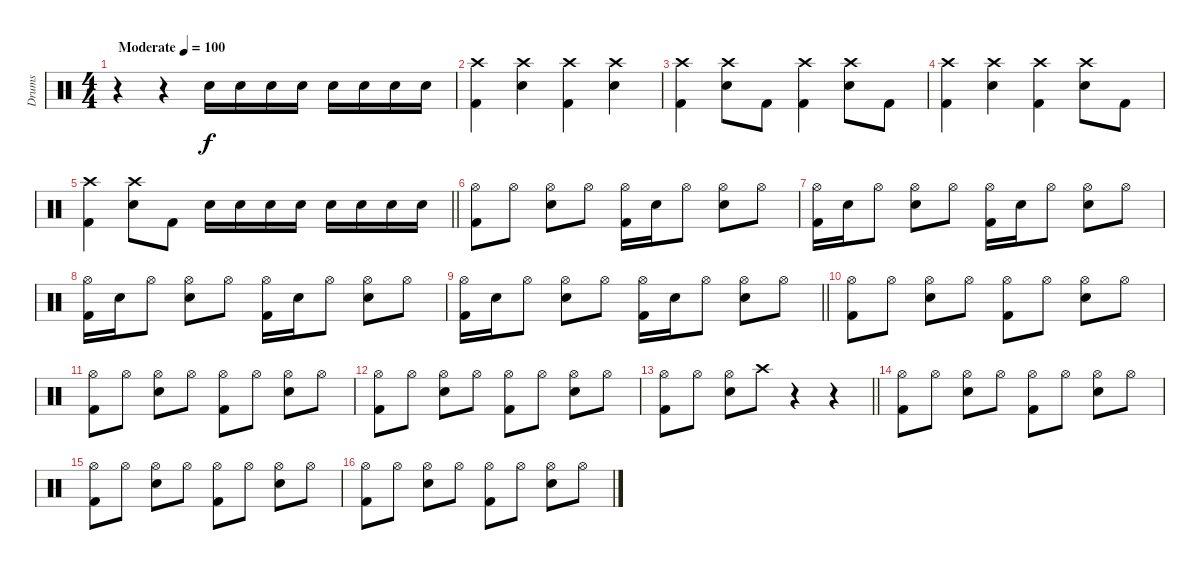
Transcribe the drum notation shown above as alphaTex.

\track ("Drums" "Drums") {instrument percussion}
\staff {score}
\articulation defaults
\ts (4 4)
\tempo (100 "Moderate")
\clef neutral
\ks c
r.4{dy f} r.4 "Electric Snare (hit)".16 "Electric Snare (hit)".16 "Electric Snare (hit)".16 "Electric Snare (hit)".16 "Electric Snare (hit)".16 "Electric Snare (hit)".16 "Electric Snare (hit)".16 "Electric Snare (hit)".16 |
("Crash high (hit)" "Kick (hit) 2").4 ("Crash high (hit)" "Electric Snare (hit)").4 ("Crash high (hit)" "Kick (hit) 2").4 ("Crash high (hit)" "Electric Snare (hit)").4 |
("Crash high (hit)" "Kick (hit) 2").4 ("Crash high (hit)" "Electric Snare (hit)").8 "Kick (hit) 2".8 ("Crash high (hit)" "Kick (hit) 2").4 ("Crash high (hit)" "Electric Snare (hit)").8 "Kick (hit) 2".8 |
("Crash high (hit)" "Kick (hit) 2").4 ("Crash high (hit)" "Electric Snare (hit)").4 ("Crash high (hit)" "Kick (hit) 2").4 ("Crash high (hit)" "Electric Snare (hit)").8 "Kick (hit) 2".8 |
\barLineRight lightlight
("Crash high (hit)" "Kick (hit) 2").4 ("Crash high (hit)" "Electric Snare (hit)").8 "Kick (hit) 2".8 "Electric Snare (hit)".16 "Electric Snare (hit)".16 "Electric Snare (hit)".16 "Electric Snare (hit)".16 "Electric Snare (hit)".16 "Electric Snare (hit)".16 "Electric Snare (hit)".16 "Electric Snare (hit)".16 |
("Hi-Hat (open)" "Kick (hit) 2").8 "Hi-Hat (open)".8 ("Hi-Hat (open)" "Electric Snare (hit)").8 "Hi-Hat (open)".8 ("Hi-Hat (open)" "Kick (hit) 2").16 "Electric Snare (hit)".16 "Hi-Hat (open)".8 ("Hi-Hat (open)" "Electric Snare (hit)").8 "Hi-Hat (open)".8 |
("Hi-Hat (open)" "Kick (hit) 2").16 "Electric Snare (hit)".16 "Hi-Hat (open)".8 ("Hi-Hat (open)" "Electric Snare (hit)").8 "Hi-Hat (open)".8 ("Hi-Hat (open)" "Kick (hit) 2").16 "Electric Snare (hit)".16 "Hi-Hat (open)".8 ("Hi-Hat (open)" "Electric Snare (hit)").8 "Hi-Hat (open)".8 |
("Hi-Hat (open)" "Kick (hit) 2").16 "Electric Snare (hit)".16 "Hi-Hat (open)".8 ("Hi-Hat (open)" "Electric Snare (hit)").8 "Hi-Hat (open)".8 ("Hi-Hat (open)" "Kick (hit) 2").16 "Electric Snare (hit)".16 "Hi-Hat (open)".8 ("Hi-Hat (open)" "Electric Snare (hit)").8 "Hi-Hat (open)".8 |
\barLineRight lightlight
("Hi-Hat (open)" "Kick (hit) 2").16 "Electric Snare (hit)".16 "Hi-Hat (open)".8 ("Hi-Hat (open)" "Electric Snare (hit)").8 "Hi-Hat (open)".8 ("Hi-Hat (open)" "Kick (hit) 2").16 "Electric Snare (hit)".16 "Hi-Hat (open)".8 ("Hi-Hat (open)" "Electric Snare (hit)").8 "Hi-Hat (open)".8 |
("Hi-Hat (open)" "Kick (hit) 2").8 "Hi-Hat (open)".8 ("Hi-Hat (open)" "Electric Snare (hit)").8 "Hi-Hat (open)".8 ("Hi-Hat (open)" "Kick (hit) 2").8 "Hi-Hat (open)".8 ("Hi-Hat (open)" "Electric Snare (hit)").8 "Hi-Hat (open)".8 |
("Hi-Hat (open)" "Kick (hit) 2").8 "Hi-Hat (open)".8 ("Hi-Hat (open)" "Electric Snare (hit)").8 "Hi-Hat (open)".8 ("Hi-Hat (open)" "Kick (hit) 2").8 "Hi-Hat (open)".8 ("Hi-Hat (open)" "Electric Snare (hit)").8 "Hi-Hat (open)".8 |
("Hi-Hat (open)" "Kick (hit) 2").8 "Hi-Hat (open)".8 ("Hi-Hat (open)" "Electric Snare (hit)").8 "Hi-Hat (open)".8 ("Hi-Hat (open)" "Kick (hit) 2").8 "Hi-Hat (open)".8 ("Hi-Hat (open)" "Electric Snare (hit)").8 "Hi-Hat (open)".8 |
\barLineRight lightlight
("Hi-Hat (open)" "Kick (hit) 2").8 "Hi-Hat (open)".8 ("Hi-Hat (open)" "Electric Snare (hit)").8 "Crash high (hit)".8 r.4 r.4 |
("Hi-Hat (open)" "Kick (hit) 2").8 "Hi-Hat (open)".8 ("Hi-Hat (open)" "Electric Snare (hit)").8 "Hi-Hat (open)".8 ("Hi-Hat (open)" "Kick (hit) 2").8 "Hi-Hat (open)".8 ("Hi-Hat (open)" "Electric Snare (hit)").8 "Hi-Hat (open)".8 |
("Hi-Hat (open)" "Kick (hit) 2").8 "Hi-Hat (open)".8 ("Hi-Hat (open)" "Electric Snare (hit)").8 "Hi-Hat (open)".8 ("Hi-Hat (open)" "Kick (hit) 2").8 "Hi-Hat (open)".8 ("Hi-Hat (open)" "Electric Snare (hit)").8 "Hi-Hat (open)".8 |
("Hi-Hat (open)" "Kick (hit) 2").8 "Hi-Hat (open)".8 ("Hi-Hat (open)" "Electric Snare (hit)").8 "Hi-Hat (open)".8 ("Hi-Hat (open)" "Kick (hit) 2").8 "Hi-Hat (open)".8 ("Hi-Hat (open)" "Electric Snare (hit)").8 "Hi-Hat (open)".8
